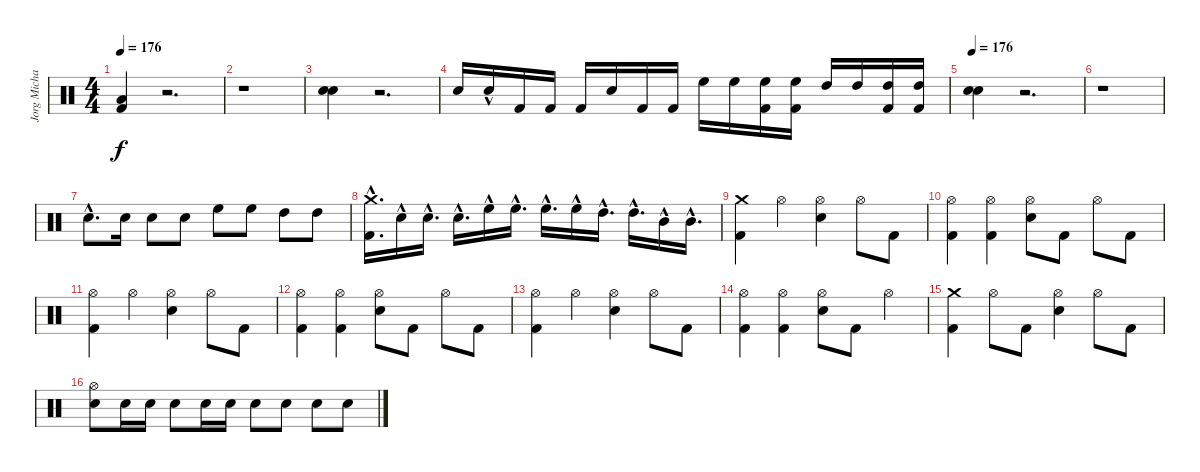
\track ("Jorg Michael" "Jorg Micha") {instrument percussion}
\staff {score}
\articulation defaults
\ts (4 4)
\tempo 176
\clef neutral
\ks c
("Low Tom (hit)" "Kick (hit) 2").4{dy f} r.2{d} |
r.1 |
("Snare (hit) 2" "Snare (hit) 2").4 r.2{d} |
"Snare (hit) 2".16 "Snare (hit) 2"{hac}.16 "Kick (hit) 2".16 "Kick (hit) 2".16 "Kick (hit) 2".16 "Snare (hit) 2".16 "Kick (hit) 2".16 "Kick (hit) 2".16 "High Floor Tom (hit)".16 "High Floor Tom (hit)".16 ("High Floor Tom (hit)" "Kick (hit) 2").16 ("High Floor Tom (hit)" "Kick (hit) 2").16 "High Tom (hit)".16 "High Tom (hit)".16 ("High Tom (hit)" "Kick (hit) 2").16 ("High Tom (hit)" "Kick (hit) 2").16 |
\tempo 176
("Snare (hit) 2" "Snare (hit) 2").4 r.2{d} |
r.1 |
"Snare (hit) 2"{hac}.8{d} "Snare (hit) 2".16 "Snare (hit) 2".8 "Snare (hit) 2".8 "High Floor Tom (hit)".8 "High Floor Tom (hit)".8 "High Tom (hit)".8 "High Tom (hit)".8 |
("Kick (hit) 2" "Crash medium (hit)"{hac}).16{d} "Snare (hit) 2"{hac}.16 "Snare (hit) 2"{hac}.16{d} "Snare (hit) 2"{hac}.16{d} "High Floor Tom (hit)"{hac}.16 "High Floor Tom (hit)"{hac}.16{d} "High Floor Tom (hit)"{hac}.16{d} "High Floor Tom (hit)"{hac}.16 "High Tom (hit)"{hac}.16{d} "High Tom (hit)"{hac}.16{d} "Mid Tom (hit)"{hac}.16 "Mid Tom (hit)"{hac}.16{d} |
("Kick (hit) 2" "Crash medium (hit)").4 "Hi-Hat (open)".4 ("Snare (hit) 2" "Hi-Hat (open)").4 "Hi-Hat (open)".8 "Kick (hit) 2".8 |
("Kick (hit) 2" "Hi-Hat (open)").4 ("Kick (hit) 2" "Hi-Hat (open)").4 ("Snare (hit) 2" "Hi-Hat (open)").8 "Kick (hit) 2".8 "Hi-Hat (open)".8 "Kick (hit) 2".8 |
("Kick (hit) 2" "Hi-Hat (open)").4 "Hi-Hat (open)".4 ("Snare (hit) 2" "Hi-Hat (open)").4 "Hi-Hat (open)".8 "Kick (hit) 2".8 |
("Kick (hit) 2" "Hi-Hat (open)").4 ("Kick (hit) 2" "Hi-Hat (open)").4 ("Snare (hit) 2" "Hi-Hat (open)").8 "Kick (hit) 2".8 "Hi-Hat (open)".8 "Kick (hit) 2".8 |
("Kick (hit) 2" "Hi-Hat (open)").4 "Hi-Hat (open)".4 ("Snare (hit) 2" "Hi-Hat (open)").4 "Hi-Hat (open)".8 "Kick (hit) 2".8 |
("Kick (hit) 2" "Hi-Hat (open)").4 ("Kick (hit) 2" "Hi-Hat (open)").4 ("Snare (hit) 2" "Hi-Hat (open)").8 "Kick (hit) 2".8 "Hi-Hat (open)".4 |
("Kick (hit) 2" "Crash medium (hit)").4 "Hi-Hat (open)".8 "Kick (hit) 2".8 ("Snare (hit) 2" "Hi-Hat (open)").4 "Hi-Hat (open)".8 "Kick (hit) 2".8 |
("Snare (hit) 2" "Hi-Hat (open)").8 "Snare (hit) 2".16 "Snare (hit) 2".16 "Snare (hit) 2".8 "Snare (hit) 2".16 "Snare (hit) 2".16 "Snare (hit) 2".8 "Snare (hit) 2".8 "Snare (hit) 2".8 "Snare (hit) 2".8
